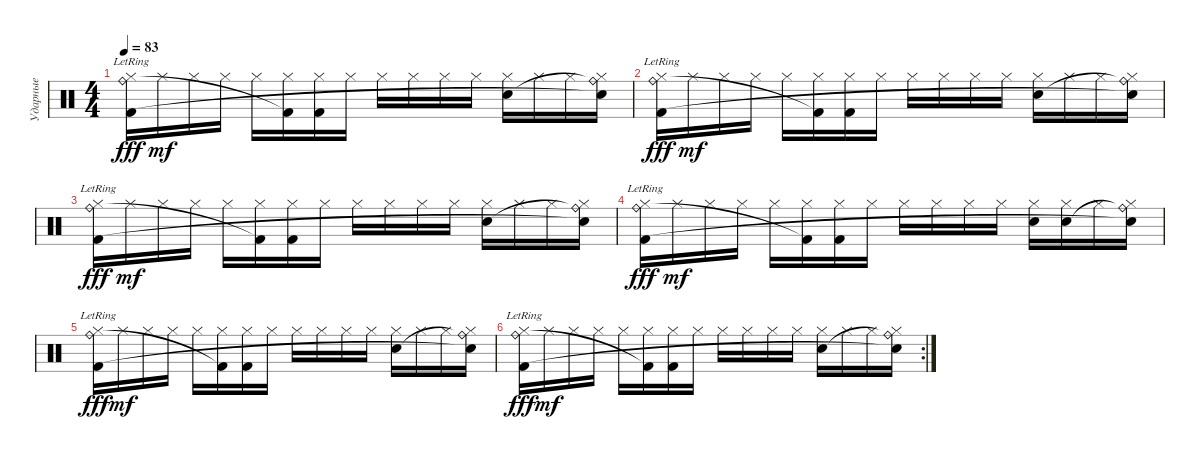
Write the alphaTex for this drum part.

\track ("Ударные" "Ударные") {instrument percussion}
\staff {score}
\articulation defaults
\ts (4 4)
\tempo 83
\clef neutral
\ks c
("Hi-Hat (closed)" "Ride (bell)"{lr} "Kick (hit) 2").16{dy fff} "Hi-Hat (closed)".16{dy mf} "Hi-Hat (closed)".16 "Hi-Hat (closed)".16 "Hi-Hat (closed)".16 ("Hi-Hat (closed)" "Kick (hit) 2"{t}).16 ("Hi-Hat (closed)" "Kick (hit) 2").16 "Hi-Hat (closed)".16 "Hi-Hat (closed)".16 "Hi-Hat (closed)".16 "Hi-Hat (closed)".16 "Hi-Hat (closed)".16 ("Hi-Hat (closed)" "Electric Snare (hit)").16 "Hi-Hat (closed)".16 "Hi-Hat (closed)".16 ("Hi-Hat (closed)" "Ride (bell)"{t} "Electric Snare (hit)"{t}).16 |
("Hi-Hat (closed)" "Ride (bell)"{lr} "Kick (hit) 2").16{dy fff} "Hi-Hat (closed)".16{dy mf} "Hi-Hat (closed)".16 "Hi-Hat (closed)".16 "Hi-Hat (closed)".16 ("Hi-Hat (closed)" "Kick (hit) 2"{t}).16 ("Hi-Hat (closed)" "Kick (hit) 2").16 "Hi-Hat (closed)".16 "Hi-Hat (closed)".16 "Hi-Hat (closed)".16 "Hi-Hat (closed)".16 "Hi-Hat (closed)".16 ("Hi-Hat (closed)" "Electric Snare (hit)").16 "Hi-Hat (closed)".16 "Hi-Hat (closed)".16 ("Hi-Hat (closed)" "Ride (bell)"{t} "Electric Snare (hit)"{t}).16 |
("Hi-Hat (closed)" "Ride (bell)"{lr} "Kick (hit) 2").16{dy fff} "Hi-Hat (closed)".16{dy mf} "Hi-Hat (closed)".16 "Hi-Hat (closed)".16 "Hi-Hat (closed)".16 ("Hi-Hat (closed)" "Kick (hit) 2"{t}).16 ("Hi-Hat (closed)" "Kick (hit) 2").16 "Hi-Hat (closed)".16 "Hi-Hat (closed)".16 "Hi-Hat (closed)".16 "Hi-Hat (closed)".16 "Hi-Hat (closed)".16 ("Hi-Hat (closed)" "Electric Snare (hit)").16 "Hi-Hat (closed)".16 "Hi-Hat (closed)".16 ("Hi-Hat (closed)" "Ride (bell)"{t} "Electric Snare (hit)"{t}).16 |
("Hi-Hat (closed)" "Ride (bell)"{lr} "Kick (hit) 2").16{dy fff} "Hi-Hat (closed)".16{dy mf} "Hi-Hat (closed)".16 "Hi-Hat (closed)".16 "Hi-Hat (closed)".16 ("Hi-Hat (closed)" "Kick (hit) 2"{t}).16 ("Hi-Hat (closed)" "Kick (hit) 2").16 "Hi-Hat (closed)".16 "Hi-Hat (closed)".16 "Hi-Hat (closed)".16 "Hi-Hat (closed)".16 "Hi-Hat (closed)".16 ("Hi-Hat (closed)" "Electric Snare (hit)").16 ("Hi-Hat (closed)" "Electric Snare (hit)").16 "Hi-Hat (closed)".16 ("Hi-Hat (closed)" "Ride (bell)"{t} "Electric Snare (hit)"{t}).16 |
("Hi-Hat (closed)" "Ride (bell)"{lr} "Kick (hit) 2").16{dy fff} "Hi-Hat (closed)".16{dy mf} "Hi-Hat (closed)".16 "Hi-Hat (closed)".16 "Hi-Hat (closed)".16 ("Hi-Hat (closed)" "Kick (hit) 2"{t}).16 ("Hi-Hat (closed)" "Kick (hit) 2").16 "Hi-Hat (closed)".16 "Hi-Hat (closed)".16 "Hi-Hat (closed)".16 "Hi-Hat (closed)".16 "Hi-Hat (closed)".16 ("Hi-Hat (closed)" "Electric Snare (hit)").16 "Hi-Hat (closed)".16 "Hi-Hat (closed)".16 ("Hi-Hat (closed)" "Ride (bell)"{t} "Electric Snare (hit)"{t}).16 |
\rc 2
("Hi-Hat (closed)" "Ride (bell)"{lr} "Kick (hit) 2").16{dy fff} "Hi-Hat (closed)".16{dy mf} "Hi-Hat (closed)".16 "Hi-Hat (closed)".16 "Hi-Hat (closed)".16 ("Hi-Hat (closed)" "Kick (hit) 2"{t}).16 ("Hi-Hat (closed)" "Kick (hit) 2").16 "Hi-Hat (closed)".16 "Hi-Hat (closed)".16 "Hi-Hat (closed)".16 "Hi-Hat (closed)".16 "Hi-Hat (closed)".16 ("Hi-Hat (closed)" "Electric Snare (hit)").16 "Hi-Hat (closed)".16 "Hi-Hat (closed)".16 ("Hi-Hat (closed)" "Ride (bell)"{t} "Electric Snare (hit)"{t}).16
